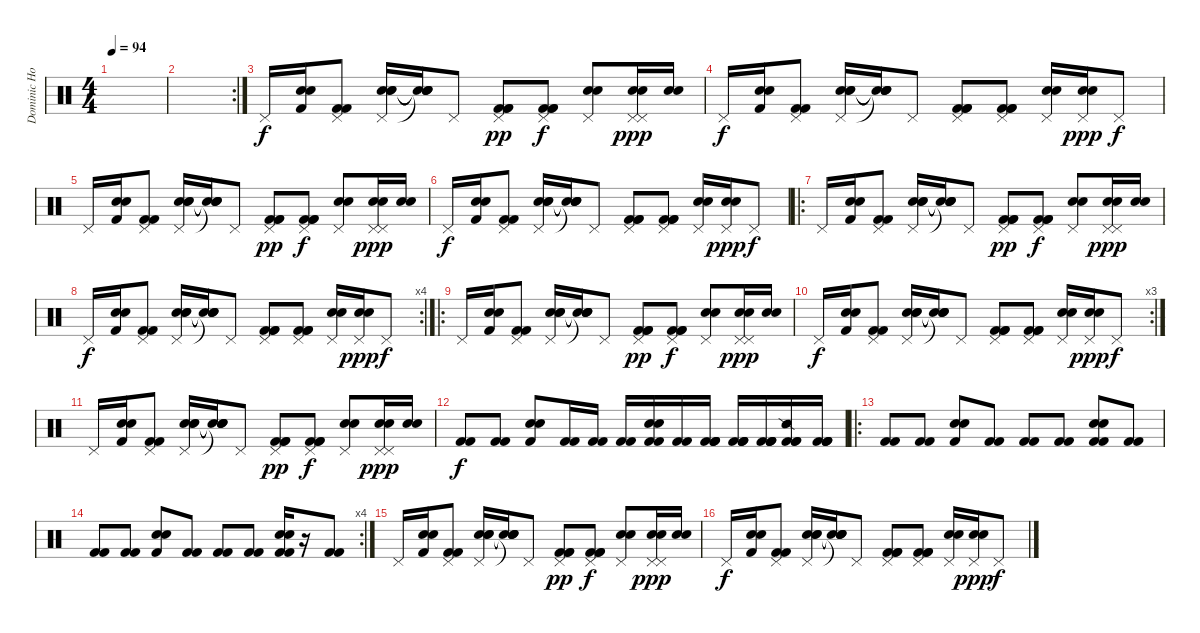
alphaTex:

\track ("Dominic Howard" "Dominic Ho") {instrument percussion}
\staff {score}
\articulation defaults
\ts (4 4)
\tempo 94
\clef neutral
\ks c
|
\rc 2
|
"Pedal Hi-Hat (hit)".16 ("Snare (hit) 2" "Snare (hit) 2" "Kick (hit) 2").16 ("Pedal Hi-Hat (hit)" "Kick (hit) 2" "Kick (hit) 2").8 ("Pedal Hi-Hat (hit)" "Snare (hit) 2" "Snare (hit) 2" "Snare (hit) 2").16 ("Snare (hit)"{t} "Snare (hit)"{t} "Snare (hit)"{t} "Snare (hit)"{t}).16 "Pedal Hi-Hat (hit)".8 ("Pedal Hi-Hat (hit)" "Kick (hit) 2" "Kick (hit) 2" "Kick (hit) 2").8{dy pp} ("Pedal Hi-Hat (hit)" "Kick (hit) 2" "Kick (hit) 2" "Kick (hit) 2").8{dy f} ("Pedal Hi-Hat (hit)" "Snare (hit) 2" "Snare (hit) 2").8 ("Pedal Hi-Hat (hit)" "Pedal Hi-Hat (hit)" "Snare (hit) 2" "Snare (hit) 2").16{dy ppp} ("Snare (hit) 2" "Snare (hit) 2").16 |
"Pedal Hi-Hat (hit)".16{dy f} ("Snare (hit) 2" "Snare (hit) 2" "Kick (hit) 2").16 ("Pedal Hi-Hat (hit)" "Kick (hit) 2" "Kick (hit) 2").8 ("Pedal Hi-Hat (hit)" "Snare (hit) 2" "Snare (hit) 2" "Snare (hit) 2").16 ("Snare (hit)"{t} "Snare (hit)"{t} "Snare (hit)"{t} "Snare (hit)"{t}).16 "Pedal Hi-Hat (hit)".8 ("Pedal Hi-Hat (hit)" "Kick (hit) 2" "Kick (hit) 2" "Kick (hit) 2").8 ("Pedal Hi-Hat (hit)" "Kick (hit) 2" "Kick (hit) 2" "Kick (hit) 2").8 ("Pedal Hi-Hat (hit)" "Snare (hit) 2" "Snare (hit) 2").16 ("Pedal Hi-Hat (hit)" "Snare (hit) 2" "Snare (hit) 2").16{dy ppp} "Pedal Hi-Hat (hit)".8{dy f} |
"Pedal Hi-Hat (hit)".16 ("Snare (hit) 2" "Snare (hit) 2" "Kick (hit) 2").16 ("Pedal Hi-Hat (hit)" "Kick (hit) 2" "Kick (hit) 2").8 ("Pedal Hi-Hat (hit)" "Snare (hit) 2" "Snare (hit) 2" "Snare (hit) 2").16 ("Snare (hit)"{t} "Snare (hit)"{t} "Snare (hit)"{t} "Snare (hit)"{t}).16 "Pedal Hi-Hat (hit)".8 ("Pedal Hi-Hat (hit)" "Kick (hit) 2" "Kick (hit) 2" "Kick (hit) 2").8{dy pp} ("Pedal Hi-Hat (hit)" "Kick (hit) 2" "Kick (hit) 2" "Kick (hit) 2").8{dy f} ("Pedal Hi-Hat (hit)" "Snare (hit) 2" "Snare (hit) 2").8 ("Pedal Hi-Hat (hit)" "Pedal Hi-Hat (hit)" "Snare (hit) 2" "Snare (hit) 2").16{dy ppp} ("Snare (hit) 2" "Snare (hit) 2").16 |
"Pedal Hi-Hat (hit)".16{dy f} ("Snare (hit) 2" "Snare (hit) 2" "Kick (hit) 2").16 ("Pedal Hi-Hat (hit)" "Kick (hit) 2" "Kick (hit) 2").8 ("Pedal Hi-Hat (hit)" "Snare (hit) 2" "Snare (hit) 2" "Snare (hit) 2").16 ("Snare (hit)"{t} "Snare (hit)"{t} "Snare (hit)"{t} "Snare (hit)"{t}).16 "Pedal Hi-Hat (hit)".8 ("Pedal Hi-Hat (hit)" "Kick (hit) 2" "Kick (hit) 2" "Kick (hit) 2").8 ("Pedal Hi-Hat (hit)" "Kick (hit) 2" "Kick (hit) 2" "Kick (hit) 2").8 ("Pedal Hi-Hat (hit)" "Snare (hit) 2" "Snare (hit) 2").16 ("Pedal Hi-Hat (hit)" "Snare (hit) 2" "Snare (hit) 2").16{dy ppp} "Pedal Hi-Hat (hit)".8{dy f} |
\ro "Pedal Hi-Hat (hit)".16
("Snare (hit) 2" "Snare (hit) 2" "Kick (hit) 2").16 ("Pedal Hi-Hat (hit)" "Kick (hit) 2" "Kick (hit) 2").8 ("Pedal Hi-Hat (hit)" "Snare (hit) 2" "Snare (hit) 2" "Snare (hit) 2").16 ("Snare (hit)"{t} "Snare (hit)"{t} "Snare (hit)"{t} "Snare (hit)"{t}).16 "Pedal Hi-Hat (hit)".8 ("Pedal Hi-Hat (hit)" "Kick (hit) 2" "Kick (hit) 2" "Kick (hit) 2").8{dy pp} ("Pedal Hi-Hat (hit)" "Kick (hit) 2" "Kick (hit) 2" "Kick (hit) 2").8{dy f} ("Pedal Hi-Hat (hit)" "Snare (hit) 2" "Snare (hit) 2").8 ("Pedal Hi-Hat (hit)" "Pedal Hi-Hat (hit)" "Snare (hit) 2" "Snare (hit) 2").16{dy ppp} ("Snare (hit) 2" "Snare (hit) 2").16 |
\rc 4 "Pedal Hi-Hat (hit)".16{dy f}
("Snare (hit) 2" "Snare (hit) 2" "Kick (hit) 2").16 ("Pedal Hi-Hat (hit)" "Kick (hit) 2" "Kick (hit) 2").8 ("Pedal Hi-Hat (hit)" "Snare (hit) 2" "Snare (hit) 2" "Snare (hit) 2").16 ("Snare (hit)"{t} "Snare (hit)"{t} "Snare (hit)"{t} "Snare (hit)"{t}).16 "Pedal Hi-Hat (hit)".8 ("Pedal Hi-Hat (hit)" "Kick (hit) 2" "Kick (hit) 2" "Kick (hit) 2").8 ("Pedal Hi-Hat (hit)" "Kick (hit) 2" "Kick (hit) 2" "Kick (hit) 2").8 ("Pedal Hi-Hat (hit)" "Snare (hit) 2" "Snare (hit) 2").16 ("Pedal Hi-Hat (hit)" "Snare (hit) 2" "Snare (hit) 2").16{dy ppp} "Pedal Hi-Hat (hit)".8{dy f} |
\ro "Pedal Hi-Hat (hit)".16
("Snare (hit) 2" "Snare (hit) 2" "Kick (hit) 2").16 ("Pedal Hi-Hat (hit)" "Kick (hit) 2" "Kick (hit) 2").8 ("Pedal Hi-Hat (hit)" "Snare (hit) 2" "Snare (hit) 2" "Snare (hit) 2").16 ("Snare (hit)"{t} "Snare (hit)"{t} "Snare (hit)"{t} "Snare (hit)"{t}).16 "Pedal Hi-Hat (hit)".8 ("Pedal Hi-Hat (hit)" "Kick (hit) 2" "Kick (hit) 2" "Kick (hit) 2").8{dy pp} ("Pedal Hi-Hat (hit)" "Kick (hit) 2" "Kick (hit) 2" "Kick (hit) 2").8{dy f} ("Pedal Hi-Hat (hit)" "Snare (hit) 2" "Snare (hit) 2").8 ("Pedal Hi-Hat (hit)" "Pedal Hi-Hat (hit)" "Snare (hit) 2" "Snare (hit) 2").16{dy ppp} ("Snare (hit) 2" "Snare (hit) 2").16 |
\rc 3 "Pedal Hi-Hat (hit)".16{dy f}
("Snare (hit) 2" "Snare (hit) 2" "Kick (hit) 2").16 ("Pedal Hi-Hat (hit)" "Kick (hit) 2" "Kick (hit) 2").8 ("Pedal Hi-Hat (hit)" "Snare (hit) 2" "Snare (hit) 2" "Snare (hit) 2").16 ("Snare (hit)"{t} "Snare (hit)"{t} "Snare (hit)"{t} "Snare (hit)"{t}).16 "Pedal Hi-Hat (hit)".8 ("Pedal Hi-Hat (hit)" "Kick (hit) 2" "Kick (hit) 2" "Kick (hit) 2").8 ("Pedal Hi-Hat (hit)" "Kick (hit) 2" "Kick (hit) 2" "Kick (hit) 2").8 ("Pedal Hi-Hat (hit)" "Snare (hit) 2" "Snare (hit) 2").16 ("Pedal Hi-Hat (hit)" "Snare (hit) 2" "Snare (hit) 2").16{dy ppp} "Pedal Hi-Hat (hit)".8{dy f} |
"Pedal Hi-Hat (hit)".16 ("Snare (hit) 2" "Snare (hit) 2" "Kick (hit) 2").16 ("Pedal Hi-Hat (hit)" "Kick (hit) 2" "Kick (hit) 2").8 ("Pedal Hi-Hat (hit)" "Snare (hit) 2" "Snare (hit) 2" "Snare (hit) 2").16 ("Snare (hit)"{t} "Snare (hit)"{t} "Snare (hit)"{t} "Snare (hit)"{t}).16 "Pedal Hi-Hat (hit)".8 ("Pedal Hi-Hat (hit)" "Kick (hit) 2" "Kick (hit) 2" "Kick (hit) 2").8{dy pp} ("Pedal Hi-Hat (hit)" "Kick (hit) 2" "Kick (hit) 2" "Kick (hit) 2").8{dy f} ("Pedal Hi-Hat (hit)" "Snare (hit) 2" "Snare (hit) 2").8 ("Pedal Hi-Hat (hit)" "Pedal Hi-Hat (hit)" "Snare (hit) 2" "Snare (hit) 2").16{dy ppp} ("Snare (hit) 2" "Snare (hit) 2").16 |
("Kick (hit) 2" "Kick (hit) 2").8{dy f} ("Kick (hit) 2" "Kick (hit) 2").8 ("Snare (hit) 2" "Snare (hit) 2" "Kick (hit) 2").8 ("Kick (hit) 2" "Kick (hit) 2").16 ("Kick (hit) 2" "Kick (hit) 2").16 ("Kick (hit) 2" "Kick (hit) 2").16 ("Snare (hit) 2" "Snare (hit) 2" "Kick (hit) 2" "Kick (hit) 2").16 ("Kick (hit) 2" "Kick (hit) 2").16 ("Kick (hit) 2" "Kick (hit) 2" "Kick (hit) 2" "Kick (hit) 2").16 ("Kick (hit) 2" "Kick (hit) 2" "Kick (hit) 2" "Kick (hit) 2").16 ("Kick (hit) 2" "Kick (hit) 2" "Kick (hit) 2" "Kick (hit) 2").16 ("Snare (side stick) 2" "Kick (hit) 2" "Kick (hit) 2" "Kick (hit) 2").16 ("Kick (hit) 2" "Kick (hit) 2" "Kick (hit) 2" "Kick (hit) 2").16 |
\ro
("Kick (hit) 2" "Kick (hit) 2").8 ("Kick (hit) 2" "Kick (hit) 2").8 ("Snare (hit) 2" "Snare (hit) 2" "Kick (hit) 2").8 ("Kick (hit) 2" "Kick (hit) 2").8 ("Kick (hit) 2" "Kick (hit) 2").8 ("Kick (hit) 2" "Kick (hit) 2").8 ("Snare (hit) 2" "Snare (hit) 2" "Kick (hit) 2" "Kick (hit) 2").8 ("Kick (hit) 2" "Kick (hit) 2").8 |
\rc 4
("Kick (hit) 2" "Kick (hit) 2").8 ("Kick (hit) 2" "Kick (hit) 2").8 ("Snare (hit) 2" "Snare (hit) 2" "Kick (hit) 2").8 ("Kick (hit) 2" "Kick (hit) 2").8 ("Kick (hit) 2" "Kick (hit) 2").8 ("Kick (hit) 2" "Kick (hit) 2").8 ("Snare (hit) 2" "Snare (hit) 2" "Kick (hit) 2" "Kick (hit) 2").16 r.16 ("Kick (hit) 2" "Kick (hit) 2").8 |
"Pedal Hi-Hat (hit)".16 ("Snare (hit) 2" "Snare (hit) 2" "Kick (hit) 2").16 ("Pedal Hi-Hat (hit)" "Kick (hit) 2" "Kick (hit) 2").8 ("Pedal Hi-Hat (hit)" "Snare (hit) 2" "Snare (hit) 2" "Snare (hit) 2").16 ("Snare (hit)"{t} "Snare (hit)"{t} "Snare (hit)"{t} "Snare (hit)"{t}).16 "Pedal Hi-Hat (hit)".8 ("Pedal Hi-Hat (hit)" "Kick (hit) 2" "Kick (hit) 2" "Kick (hit) 2").8{dy pp} ("Pedal Hi-Hat (hit)" "Kick (hit) 2" "Kick (hit) 2" "Kick (hit) 2").8{dy f} ("Pedal Hi-Hat (hit)" "Snare (hit) 2" "Snare (hit) 2").8 ("Pedal Hi-Hat (hit)" "Pedal Hi-Hat (hit)" "Snare (hit) 2" "Snare (hit) 2").16{dy ppp} ("Snare (hit) 2" "Snare (hit) 2").16 |
"Pedal Hi-Hat (hit)".16{dy f} ("Snare (hit) 2" "Snare (hit) 2" "Kick (hit) 2").16 ("Pedal Hi-Hat (hit)" "Kick (hit) 2" "Kick (hit) 2").8 ("Pedal Hi-Hat (hit)" "Snare (hit) 2" "Snare (hit) 2" "Snare (hit) 2").16 ("Snare (hit)"{t} "Snare (hit)"{t} "Snare (hit)"{t} "Snare (hit)"{t}).16 "Pedal Hi-Hat (hit)".8 ("Pedal Hi-Hat (hit)" "Kick (hit) 2" "Kick (hit) 2" "Kick (hit) 2").8 ("Pedal Hi-Hat (hit)" "Kick (hit) 2" "Kick (hit) 2" "Kick (hit) 2").8 ("Pedal Hi-Hat (hit)" "Snare (hit) 2" "Snare (hit) 2").16 ("Pedal Hi-Hat (hit)" "Snare (hit) 2" "Snare (hit) 2").16{dy ppp} "Pedal Hi-Hat (hit)".8{dy f}
